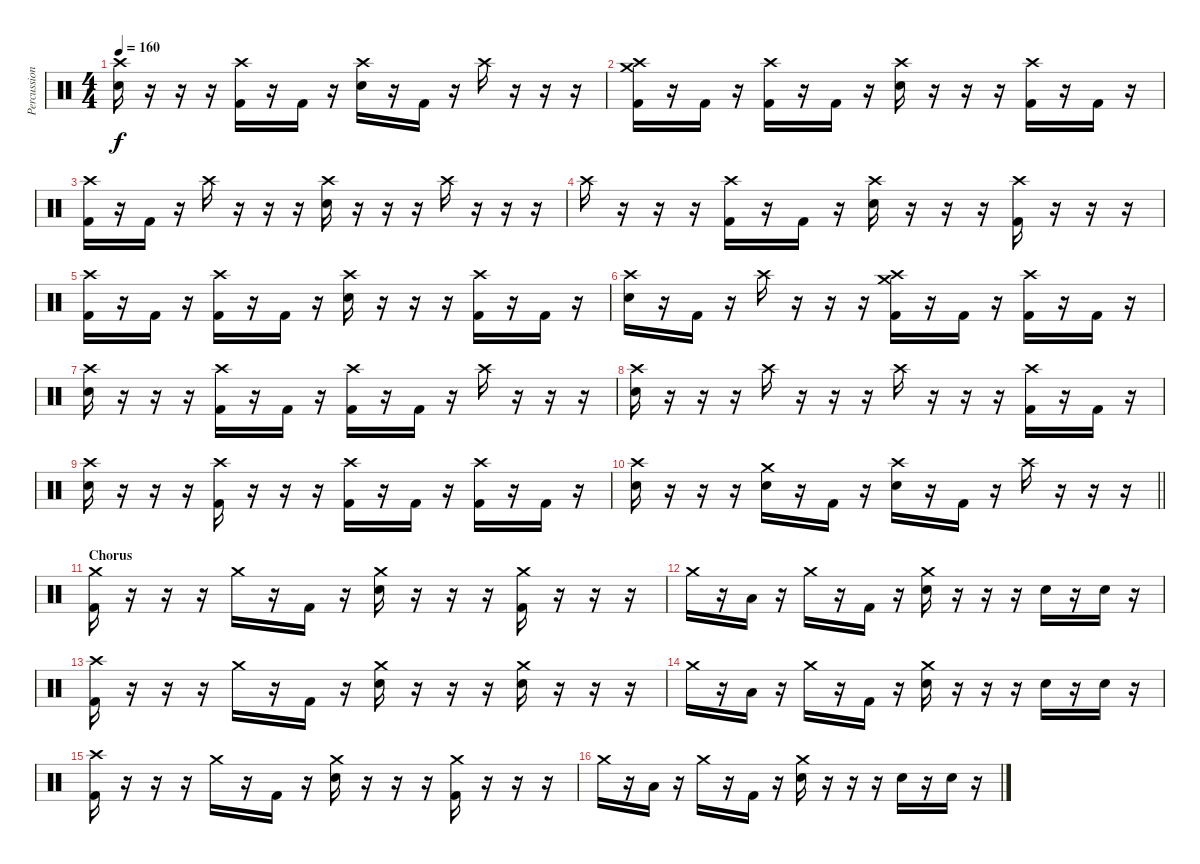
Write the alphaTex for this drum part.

\track ("Percussion" "Percussion") {instrument percussion}
\staff {score}
\articulation defaults
\ts (4 4)
\tempo 160
\clef neutral
\ks c
("Crash high (hit)" "Snare (hit) 2").16{dy f} r.16 r.16 r.16 ("Crash high (hit)" "Kick (hit) 2").16 r.16 "Kick (hit) 2".16 r.16 ("Crash high (hit)" "Snare (hit) 2").16 r.16 "Kick (hit) 2".16 r.16 "Crash high (hit)".16 r.16 r.16 r.16 |
("Crash medium (hit)" "Crash high (hit)" "Kick (hit) 2").16 r.16 "Kick (hit) 2".16 r.16 ("Crash high (hit)" "Kick (hit) 2").16 r.16 "Kick (hit) 2".16 r.16 ("Crash high (hit)" "Snare (hit) 2").16 r.16 r.16 r.16 ("Crash high (hit)" "Kick (hit) 2").16 r.16 "Kick (hit) 2".16 r.16 |
("Crash high (hit)" "Kick (hit) 2").16 r.16 "Kick (hit) 2".16 r.16 "Crash high (hit)".16 r.16 r.16 r.16 ("Crash high (hit)" "Snare (hit) 2").16 r.16 r.16 r.16 "Crash high (hit)".16 r.16 r.16 r.16 |
"Crash high (hit)".16 r.16 r.16 r.16 ("Crash high (hit)" "Kick (hit) 2").16 r.16 "Kick (hit) 2".16 r.16 ("Crash high (hit)" "Snare (hit) 2").16 r.16 r.16 r.16 ("Crash high (hit)" "Kick (hit) 2").16 r.16 r.16 r.16 |
("Crash high (hit)" "Kick (hit) 2").16 r.16 "Kick (hit) 2".16 r.16 ("Crash high (hit)" "Kick (hit) 2").16 r.16 "Kick (hit) 2".16 r.16 ("Crash high (hit)" "Snare (hit) 2").16 r.16 r.16 r.16 ("Crash high (hit)" "Kick (hit) 2").16 r.16 "Kick (hit) 2".16 r.16 |
("Crash high (hit)" "Snare (hit) 2").16 r.16 "Kick (hit) 2".16 r.16 "Crash high (hit)".16 r.16 r.16 r.16 ("Crash medium (hit)" "Crash high (hit)" "Kick (hit) 2").16 r.16 "Kick (hit) 2".16 r.16 ("Crash high (hit)" "Kick (hit) 2").16 r.16 "Kick (hit) 2".16 r.16 |
("Crash high (hit)" "Snare (hit) 2").16 r.16 r.16 r.16 ("Crash high (hit)" "Kick (hit) 2").16 r.16 "Kick (hit) 2".16 r.16 ("Crash high (hit)" "Kick (hit) 2").16 r.16 "Kick (hit) 2".16 r.16 "Crash high (hit)".16 r.16 r.16 r.16 |
("Crash high (hit)" "Snare (hit) 2").16 r.16 r.16 r.16 "Crash high (hit)".16 r.16 r.16 r.16 "Crash high (hit)".16 r.16 r.16 r.16 ("Crash high (hit)" "Kick (hit) 2").16 r.16 "Kick (hit) 2".16 r.16 |
("Crash high (hit)" "Snare (hit) 2").16 r.16 r.16 r.16 ("Crash high (hit)" "Kick (hit) 2").16 r.16 r.16 r.16 ("Crash high (hit)" "Kick (hit) 2").16 r.16 "Kick (hit) 2".16 r.16 ("Crash high (hit)" "Kick (hit) 2").16 r.16 "Kick (hit) 2".16 r.16 |
\barLineRight lightlight
("Crash high (hit)" "Snare (hit) 2").16 r.16 r.16 r.16 ("Crash medium (hit)" "Snare (hit) 2").16 r.16 "Kick (hit) 2".16 r.16 ("Crash high (hit)" "Snare (hit) 2").16 r.16 "Kick (hit) 2".16 r.16 "Crash high (hit)".16 r.16 r.16 r.16 |
\section ("" "Chorus")
("Crash medium (hit)" "Kick (hit) 2").16 r.16 r.16 r.16 "Crash medium (hit)".16 r.16 "Kick (hit) 2".16 r.16 ("Crash medium (hit)" "Snare (hit) 2").16 r.16 r.16 r.16 ("Crash medium (hit)" "Kick (hit) 2").16 r.16 r.16 r.16 |
"Crash medium (hit)".16 r.16 "Low Tom (hit)".16 r.16 "Crash medium (hit)".16 r.16 "Kick (hit) 2".16 r.16 ("Crash medium (hit)" "Snare (hit) 2").16 r.16 r.16 r.16 "Snare (hit) 2".16 r.16 "Snare (hit) 2".16 r.16 |
("Crash high (hit)" "Kick (hit) 2").16 r.16 r.16 r.16 "Crash medium (hit)".16 r.16 "Kick (hit) 2".16 r.16 ("Crash medium (hit)" "Snare (hit) 2").16 r.16 r.16 r.16 ("Crash medium (hit)" "Snare (hit) 2").16 r.16 r.16 r.16 |
"Crash medium (hit)".16 r.16 "Low Tom (hit)".16 r.16 "Crash medium (hit)".16 r.16 "Kick (hit) 2".16 r.16 ("Crash medium (hit)" "Snare (hit) 2").16 r.16 r.16 r.16 "Snare (hit) 2".16 r.16 "Snare (hit) 2".16 r.16 |
("Crash high (hit)" "Kick (hit) 2").16 r.16 r.16 r.16 "Crash medium (hit)".16 r.16 "Kick (hit) 2".16 r.16 ("Crash medium (hit)" "Snare (hit) 2").16 r.16 r.16 r.16 ("Crash medium (hit)" "Kick (hit) 2").16 r.16 r.16 r.16 |
"Crash medium (hit)".16 r.16 "Low Tom (hit)".16 r.16 "Crash medium (hit)".16 r.16 "Kick (hit) 2".16 r.16 ("Crash medium (hit)" "Snare (hit) 2").16 r.16 r.16 r.16 "Snare (hit) 2".16 r.16 "Snare (hit) 2".16 r.16
